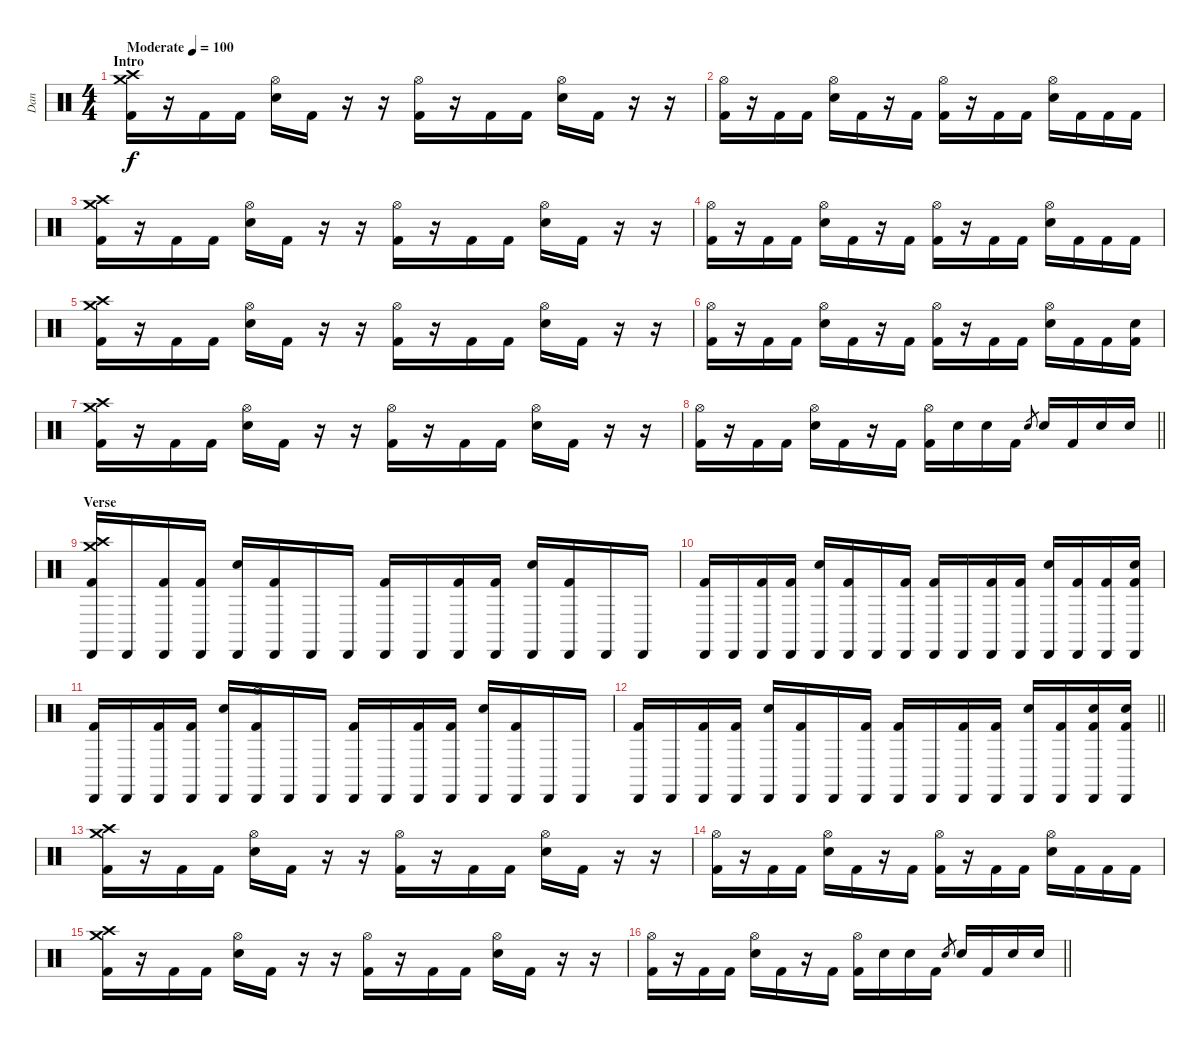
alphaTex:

\track ("Dan" "Dan") {instrument percussion}
\staff {score}
\articulation defaults
\ts (4 4)
\section ("" "Intro")
\tempo (100 "Moderate")
\clef neutral
\ks c
("Crash medium (hit)" "Crash high (hit)" "Kick (hit) 2").16{dy f} r.16 "Kick (hit) 2".16 "Kick (hit) 2".16 ("Hi-Hat (open)" "Snare (hit) 2").16 "Kick (hit) 2".16 r.16 r.16 ("Hi-Hat (open)" "Kick (hit) 2").16 r.16 "Kick (hit) 2".16 "Kick (hit) 2".16 ("Hi-Hat (open)" "Snare (hit) 2").16 "Kick (hit) 2".16 r.16 r.16 |
("Hi-Hat (open)" "Kick (hit) 2").16 r.16 "Kick (hit) 2".16 "Kick (hit) 2".16 ("Hi-Hat (open)" "Snare (hit) 2").16 "Kick (hit) 2".16 r.16 "Kick (hit) 2".16 ("Hi-Hat (open)" "Kick (hit) 2").16 r.16 "Kick (hit) 2".16 "Kick (hit) 2".16 ("Hi-Hat (open)" "Snare (hit) 2").16 "Kick (hit) 2".16 "Kick (hit) 2".16 "Kick (hit) 2".16 |
("Crash medium (hit)" "Crash high (hit)" "Kick (hit) 2").16 r.16 "Kick (hit) 2".16 "Kick (hit) 2".16 ("Hi-Hat (open)" "Snare (hit) 2").16 "Kick (hit) 2".16 r.16 r.16 ("Hi-Hat (open)" "Kick (hit) 2").16 r.16 "Kick (hit) 2".16 "Kick (hit) 2".16 ("Hi-Hat (open)" "Snare (hit) 2").16 "Kick (hit) 2".16 r.16 r.16 |
("Hi-Hat (open)" "Kick (hit) 2").16 r.16 "Kick (hit) 2".16 "Kick (hit) 2".16 ("Hi-Hat (open)" "Snare (hit) 2").16 "Kick (hit) 2".16 r.16 "Kick (hit) 2".16 ("Hi-Hat (open)" "Kick (hit) 2").16 r.16 "Kick (hit) 2".16 "Kick (hit) 2".16 ("Hi-Hat (open)" "Snare (hit) 2").16 "Kick (hit) 2".16 "Kick (hit) 2".16 "Kick (hit) 2".16 |
("Crash medium (hit)" "Crash high (hit)" "Kick (hit) 2").16 r.16 "Kick (hit) 2".16 "Kick (hit) 2".16 ("Hi-Hat (open)" "Snare (hit) 2").16 "Kick (hit) 2".16 r.16 r.16 ("Hi-Hat (open)" "Kick (hit) 2").16 r.16 "Kick (hit) 2".16 "Kick (hit) 2".16 ("Hi-Hat (open)" "Snare (hit) 2").16 "Kick (hit) 2".16 r.16 r.16 |
("Hi-Hat (open)" "Kick (hit) 2").16 r.16 "Kick (hit) 2".16 "Kick (hit) 2".16 ("Hi-Hat (open)" "Snare (hit) 2").16 "Kick (hit) 2".16 r.16 "Kick (hit) 2".16 ("Hi-Hat (open)" "Kick (hit) 2").16 r.16 "Kick (hit) 2".16 "Kick (hit) 2".16 ("Hi-Hat (open)" "Snare (hit) 2").16 "Kick (hit) 2".16 "Kick (hit) 2".16 ("Snare (hit) 2" "Kick (hit) 2").16 |
("Crash medium (hit)" "Crash high (hit)" "Kick (hit) 2").16 r.16 "Kick (hit) 2".16 "Kick (hit) 2".16 ("Hi-Hat (open)" "Snare (hit) 2").16 "Kick (hit) 2".16 r.16 r.16 ("Hi-Hat (open)" "Kick (hit) 2").16 r.16 "Kick (hit) 2".16 "Kick (hit) 2".16 ("Hi-Hat (open)" "Snare (hit) 2").16 "Kick (hit) 2".16 r.16 r.16 |
\barLineRight lightlight
("Hi-Hat (open)" "Kick (hit) 2").16 r.16 "Kick (hit) 2".16 "Kick (hit) 2".16 ("Hi-Hat (open)" "Snare (hit) 2").16 "Kick (hit) 2".16 r.16 "Kick (hit) 2".16 ("Hi-Hat (open)" "Kick (hit) 2").16 "Snare (hit) 2".16 "Snare (hit) 2".16 "Kick (hit) 2".16 "Snare (hit) 2".8{gr} "Snare (hit) 2".16 "Kick (hit) 2".16 "Snare (hit) 2".16 "Snare (hit) 2".16 |
\section ("" "Verse")
("Cabasa (hit)" "Crash medium (hit)" "Crash high (hit)" "Kick (hit) 2").16 "Cabasa (hit)".16 ("Cabasa (hit)" "Kick (hit) 2").16 ("Cabasa (hit)" "Kick (hit) 2").16 ("Cabasa (hit)" "Snare (hit) 2").16 ("Cabasa (hit)" "Kick (hit) 2").16 "Cabasa (hit)".16 "Cabasa (hit)".16 ("Cabasa (hit)" "Kick (hit) 2").16 "Cabasa (hit)".16 ("Cabasa (hit)" "Kick (hit) 2").16 ("Cabasa (hit)" "Kick (hit) 2").16 ("Cabasa (hit)" "Snare (hit) 2").16 ("Cabasa (hit)" "Kick (hit) 2").16 "Cabasa (hit)".16 "Cabasa (hit)".16 |
("Cabasa (hit)" "Kick (hit) 2").16 "Cabasa (hit)".16 ("Cabasa (hit)" "Kick (hit) 2").16 ("Cabasa (hit)" "Kick (hit) 2").16 ("Cabasa (hit)" "Snare (hit) 2").16 ("Cabasa (hit)" "Kick (hit) 2").16 "Cabasa (hit)".16 ("Cabasa (hit)" "Kick (hit) 2").16 ("Cabasa (hit)" "Kick (hit) 2").16 "Cabasa (hit)".16 ("Cabasa (hit)" "Kick (hit) 2").16 ("Cabasa (hit)" "Kick (hit) 2").16 ("Cabasa (hit)" "Snare (hit) 2").16 ("Cabasa (hit)" "Kick (hit) 2").16 ("Cabasa (hit)" "Kick (hit) 2").16 ("Cabasa (hit)" "Snare (hit) 2" "Kick (hit) 2").16 |
("Cabasa (hit)" "Kick (hit) 2").16 "Cabasa (hit)".16 ("Cabasa (hit)" "Kick (hit) 2").16 ("Cabasa (hit)" "Kick (hit) 2").16 ("Cabasa (hit)" "Snare (hit) 2").16 ("Cabasa (hit)" "Hi-Hat (open)" "Kick (hit) 2").16 "Cabasa (hit)".16 "Cabasa (hit)".16 ("Cabasa (hit)" "Kick (hit) 2").16 "Cabasa (hit)".16 ("Cabasa (hit)" "Kick (hit) 2").16 ("Cabasa (hit)" "Kick (hit) 2").16 ("Cabasa (hit)" "Snare (hit) 2").16 ("Cabasa (hit)" "Kick (hit) 2").16 "Cabasa (hit)".16 "Cabasa (hit)".16 |
\barLineRight lightlight
("Cabasa (hit)" "Kick (hit) 2").16 "Cabasa (hit)".16 ("Cabasa (hit)" "Kick (hit) 2").16 ("Cabasa (hit)" "Kick (hit) 2").16 ("Cabasa (hit)" "Snare (hit) 2").16 ("Cabasa (hit)" "Kick (hit) 2").16 "Cabasa (hit)".16 ("Cabasa (hit)" "Kick (hit) 2").16 ("Cabasa (hit)" "Kick (hit) 2").16 "Cabasa (hit)".16 ("Cabasa (hit)" "Kick (hit) 2").16 ("Cabasa (hit)" "Kick (hit) 2").16 ("Cabasa (hit)" "Snare (hit) 2").16 ("Cabasa (hit)" "Kick (hit) 2").16 ("Cabasa (hit)" "Snare (hit) 2" "Kick (hit) 2").16 ("Cabasa (hit)" "Snare (hit) 2" "Kick (hit) 2").16 |
("Crash medium (hit)" "Crash high (hit)" "Kick (hit) 2").16 r.16 "Kick (hit) 2".16 "Kick (hit) 2".16 ("Hi-Hat (open)" "Snare (hit) 2").16 "Kick (hit) 2".16 r.16 r.16 ("Hi-Hat (open)" "Kick (hit) 2").16 r.16 "Kick (hit) 2".16 "Kick (hit) 2".16 ("Hi-Hat (open)" "Snare (hit) 2").16 "Kick (hit) 2".16 r.16 r.16 |
("Hi-Hat (open)" "Kick (hit) 2").16 r.16 "Kick (hit) 2".16 "Kick (hit) 2".16 ("Hi-Hat (open)" "Snare (hit) 2").16 "Kick (hit) 2".16 r.16 "Kick (hit) 2".16 ("Hi-Hat (open)" "Kick (hit) 2").16 r.16 "Kick (hit) 2".16 "Kick (hit) 2".16 ("Hi-Hat (open)" "Snare (hit) 2").16 "Kick (hit) 2".16 "Kick (hit) 2".16 "Kick (hit) 2".16 |
("Crash medium (hit)" "Crash high (hit)" "Kick (hit) 2").16 r.16 "Kick (hit) 2".16 "Kick (hit) 2".16 ("Hi-Hat (open)" "Snare (hit) 2").16 "Kick (hit) 2".16 r.16 r.16 ("Hi-Hat (open)" "Kick (hit) 2").16 r.16 "Kick (hit) 2".16 "Kick (hit) 2".16 ("Hi-Hat (open)" "Snare (hit) 2").16 "Kick (hit) 2".16 r.16 r.16 |
\barLineRight lightlight
("Hi-Hat (open)" "Kick (hit) 2").16 r.16 "Kick (hit) 2".16 "Kick (hit) 2".16 ("Hi-Hat (open)" "Snare (hit) 2").16 "Kick (hit) 2".16 r.16 "Kick (hit) 2".16 ("Hi-Hat (open)" "Kick (hit) 2").16 "Snare (hit) 2".16 "Snare (hit) 2".16 "Kick (hit) 2".16 "Snare (hit) 2".8{gr} "Snare (hit) 2".16 "Kick (hit) 2".16 "Snare (hit) 2".16 "Snare (hit) 2".16
